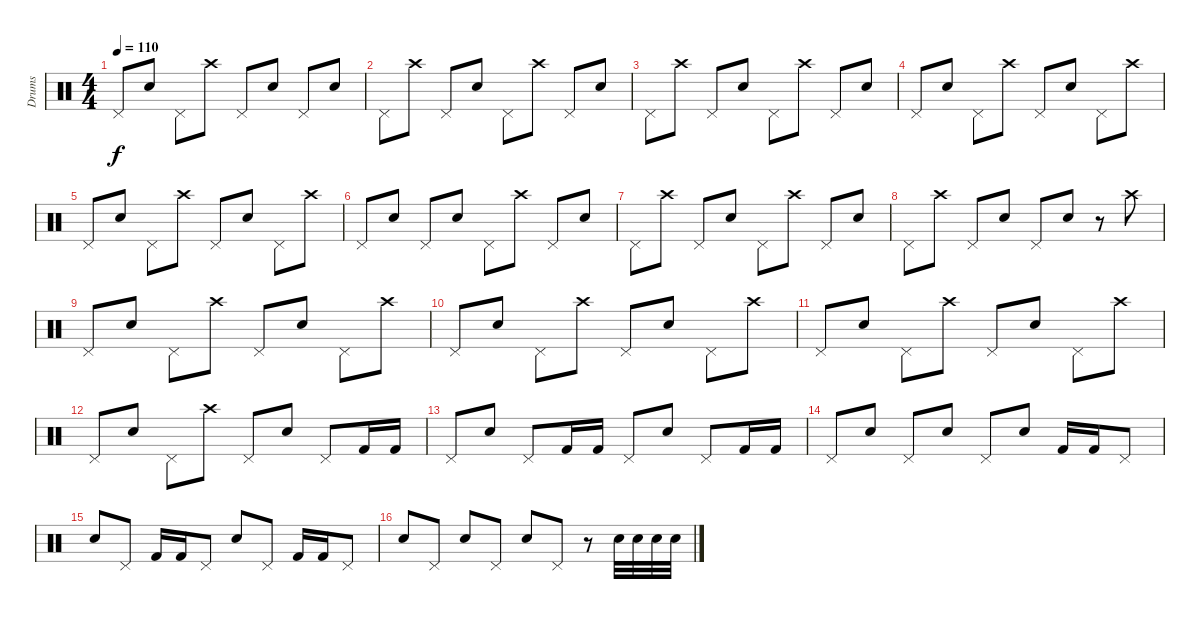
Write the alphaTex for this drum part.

\track ("Drums" "Drums") {instrument percussion}
\staff {score}
\articulation defaults
\ts (4 4)
\tempo 110
\clef neutral
\ks c "Pedal Hi-Hat (hit)".8{dy f} "Electric Snare (hit)".8 "Pedal Hi-Hat (hit)".8 "Crash high (hit)".8 "Pedal Hi-Hat (hit)".8 "Electric Snare (hit)".8 "Pedal Hi-Hat (hit)".8 "Electric Snare (hit)".8
|
"Pedal Hi-Hat (hit)".8 "Crash high (hit)".8 "Pedal Hi-Hat (hit)".8 "Electric Snare (hit)".8 "Pedal Hi-Hat (hit)".8 "Crash high (hit)".8 "Pedal Hi-Hat (hit)".8 "Electric Snare (hit)".8 |
"Pedal Hi-Hat (hit)".8 "Crash high (hit)".8 "Pedal Hi-Hat (hit)".8 "Electric Snare (hit)".8 "Pedal Hi-Hat (hit)".8 "Crash high (hit)".8 "Pedal Hi-Hat (hit)".8 "Electric Snare (hit)".8 |
"Pedal Hi-Hat (hit)".8 "Electric Snare (hit)".8 "Pedal Hi-Hat (hit)".8 "Crash high (hit)".8 "Pedal Hi-Hat (hit)".8 "Electric Snare (hit)".8 "Pedal Hi-Hat (hit)".8 "Crash high (hit)".8 |
"Pedal Hi-Hat (hit)".8 "Electric Snare (hit)".8 "Pedal Hi-Hat (hit)".8 "Crash high (hit)".8 "Pedal Hi-Hat (hit)".8 "Electric Snare (hit)".8 "Pedal Hi-Hat (hit)".8 "Crash high (hit)".8 |
"Pedal Hi-Hat (hit)".8 "Electric Snare (hit)".8 "Pedal Hi-Hat (hit)".8 "Electric Snare (hit)".8 "Pedal Hi-Hat (hit)".8 "Crash high (hit)".8 "Pedal Hi-Hat (hit)".8 "Electric Snare (hit)".8 |
"Pedal Hi-Hat (hit)".8 "Crash high (hit)".8 "Pedal Hi-Hat (hit)".8 "Electric Snare (hit)".8 "Pedal Hi-Hat (hit)".8 "Crash high (hit)".8 "Pedal Hi-Hat (hit)".8 "Electric Snare (hit)".8 |
"Pedal Hi-Hat (hit)".8 "Crash high (hit)".8 "Pedal Hi-Hat (hit)".8 "Electric Snare (hit)".8 "Pedal Hi-Hat (hit)".8 "Electric Snare (hit)".8 r.8 "Crash high (hit)".8 |
"Pedal Hi-Hat (hit)".8 "Electric Snare (hit)".8 "Pedal Hi-Hat (hit)".8 "Crash high (hit)".8 "Pedal Hi-Hat (hit)".8 "Electric Snare (hit)".8 "Pedal Hi-Hat (hit)".8 "Crash high (hit)".8 |
"Pedal Hi-Hat (hit)".8 "Electric Snare (hit)".8 "Pedal Hi-Hat (hit)".8 "Crash high (hit)".8 "Pedal Hi-Hat (hit)".8 "Electric Snare (hit)".8 "Pedal Hi-Hat (hit)".8 "Crash high (hit)".8 |
"Pedal Hi-Hat (hit)".8 "Electric Snare (hit)".8 "Pedal Hi-Hat (hit)".8 "Crash high (hit)".8 "Pedal Hi-Hat (hit)".8 "Electric Snare (hit)".8 "Pedal Hi-Hat (hit)".8 "Crash high (hit)".8 |
"Pedal Hi-Hat (hit)".8 "Electric Snare (hit)".8 "Pedal Hi-Hat (hit)".8 "Crash high (hit)".8 "Pedal Hi-Hat (hit)".8 "Electric Snare (hit)".8 "Pedal Hi-Hat (hit)".8 "Kick (hit) 2".16 "Kick (hit) 2".16 |
"Pedal Hi-Hat (hit)".8 "Electric Snare (hit)".8 "Pedal Hi-Hat (hit)".8 "Kick (hit) 2".16 "Kick (hit) 2".16 "Pedal Hi-Hat (hit)".8 "Electric Snare (hit)".8 "Pedal Hi-Hat (hit)".8 "Kick (hit) 2".16 "Kick (hit) 2".16 |
"Pedal Hi-Hat (hit)".8 "Electric Snare (hit)".8 "Pedal Hi-Hat (hit)".8 "Electric Snare (hit)".8 "Pedal Hi-Hat (hit)".8 "Electric Snare (hit)".8 "Kick (hit) 2".16 "Kick (hit) 2".16 "Pedal Hi-Hat (hit)".8 |
"Electric Snare (hit)".8 "Pedal Hi-Hat (hit)".8 "Kick (hit) 2".16 "Kick (hit) 2".16 "Pedal Hi-Hat (hit)".8 "Electric Snare (hit)".8 "Pedal Hi-Hat (hit)".8 "Kick (hit) 2".16 "Kick (hit) 2".16 "Pedal Hi-Hat (hit)".8 |
"Electric Snare (hit)".8 "Pedal Hi-Hat (hit)".8 "Electric Snare (hit)".8 "Pedal Hi-Hat (hit)".8 "Electric Snare (hit)".8 "Pedal Hi-Hat (hit)".8 r.8 "Snare (hit) 2".32 "Snare (hit) 2".32 "Snare (hit) 2".32 "Snare (hit) 2".32
